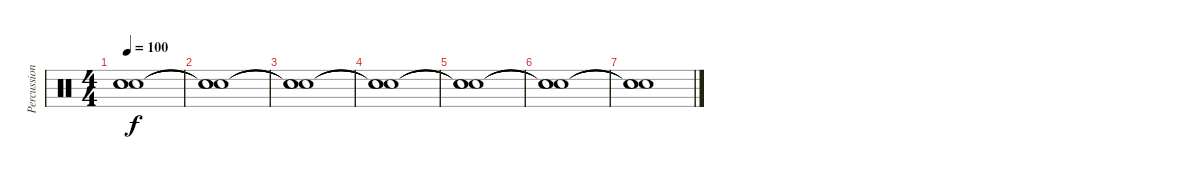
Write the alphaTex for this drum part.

\track ("Percussion" "Percussion") {instrument percussion}
\staff {score}
\articulation defaults
\ts (4 4)
\tempo 100
\clef neutral
\ks c
("Snare (hit)"{t} "Snare (hit)"{t} "Snare (hit)"{t}).1{dy f} |
("Snare (hit)"{t} "Snare (hit)"{t} "Snare (hit)"{t}).1 |
("Snare (hit)"{t} "Snare (hit)"{t} "Snare (hit)"{t}).1 |
("Snare (hit)"{t} "Snare (hit)"{t} "Snare (hit)"{t}).1 |
("Snare (hit)"{t} "Snare (hit)"{t} "Snare (hit)"{t}).1 |
("Snare (hit)"{t} "Snare (hit)"{t} "Snare (hit)"{t}).1 |
("Snare (hit)"{t} "Snare (hit)"{t} "Snare (hit)"{t}).1
